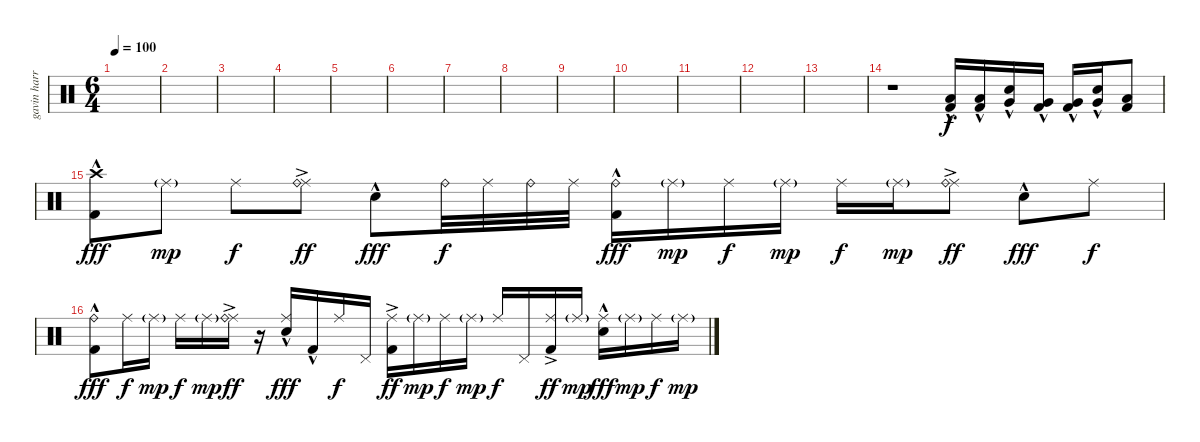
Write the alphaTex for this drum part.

\track ("gavin harrison" "gavin harr") {instrument percussion}
\staff {score}
\articulation defaults
\ts (6 4)
\tempo 100
\clef neutral
\ks c
|
|
|
|
|
|
|
|
|
|
|
|
|
r.1 ("Low Floor Tom (hit)"{hac} "Kick (hit) 2").16 ("Low Floor Tom (hit)"{hac} "Kick (hit) 2").16 ("Very Low Tom (hit)" "Electric Snare (hit)"{hac}).16 ("Very Low Tom (hit)"{hac} "Kick (hit) 2").16 ("Very Low Tom (hit)"{hac} "Kick (hit) 2").16 ("Very Low Tom (hit)" "Electric Snare (hit)"{hac}).16 ("Low Floor Tom (hit)" "Kick (hit) 2").8{dy f} |
("Crash high (hit)" "Kick (hit) 2"{hac}).8{dy fff} "Ride (middle)"{g}.8{dy mp} "Ride (middle)".8{dy f} ("Ride (middle)"{ac} "Ride (bell)").8{dy ff} "Electric Snare (hit)"{hac}.8{dy fff} "Ride (bell)".32{dy f} "Ride (middle)".32 "Ride (bell)".32 "Ride (middle)".32 ("Ride (bell)" "Kick (hit) 2"{hac}).16{dy fff} "Ride (middle)"{g}.16{dy mp} "Ride (middle)".16{dy f} "Ride (middle)"{g}.16{dy mp} "Ride (middle)".16{dy f} "Ride (middle)"{g}.16{dy mp} ("Ride (middle)" "Ride (bell)"{ac}).8{dy ff} "Electric Snare (hit)"{hac}.8{dy fff} "Ride (middle)".8{dy f} |
("Ride (bell)" "Kick (hit) 2"{hac}).8{dy fff} "Ride (middle)".16{dy f} "Ride (middle)"{g}.16{dy mp} "Ride (middle)".16{dy f} "Ride (middle)"{g}.16{dy mp} ("Ride (middle)"{ac} "Ride (bell)").16{dy ff} r.16 ("Ride (middle)" "Electric Snare (hit)"{hac}).16{dy fff} "Kick (hit) 2"{hac}.16 "Ride (middle)".16{dy f} "Pedal Hi-Hat (hit)".16 ("Ride (middle)" "Kick (hit) 2"{ac}).16{dy ff} "Ride (middle)"{g}.16{dy mp} "Ride (middle)".16{dy f} "Ride (middle)"{g}.16{dy mp} "Ride (middle)".16{dy f} "Pedal Hi-Hat (hit)".16 ("Ride (middle)" "Kick (hit) 2"{ac}).16{dy ff} "Ride (middle)"{g}.16{dy mp} ("Ride (middle)" "Electric Snare (hit)"{hac}).16{dy fff} "Ride (middle)"{g}.16{dy mp} "Ride (middle)".16{dy f} "Ride (middle)"{g}.16{dy mp}
